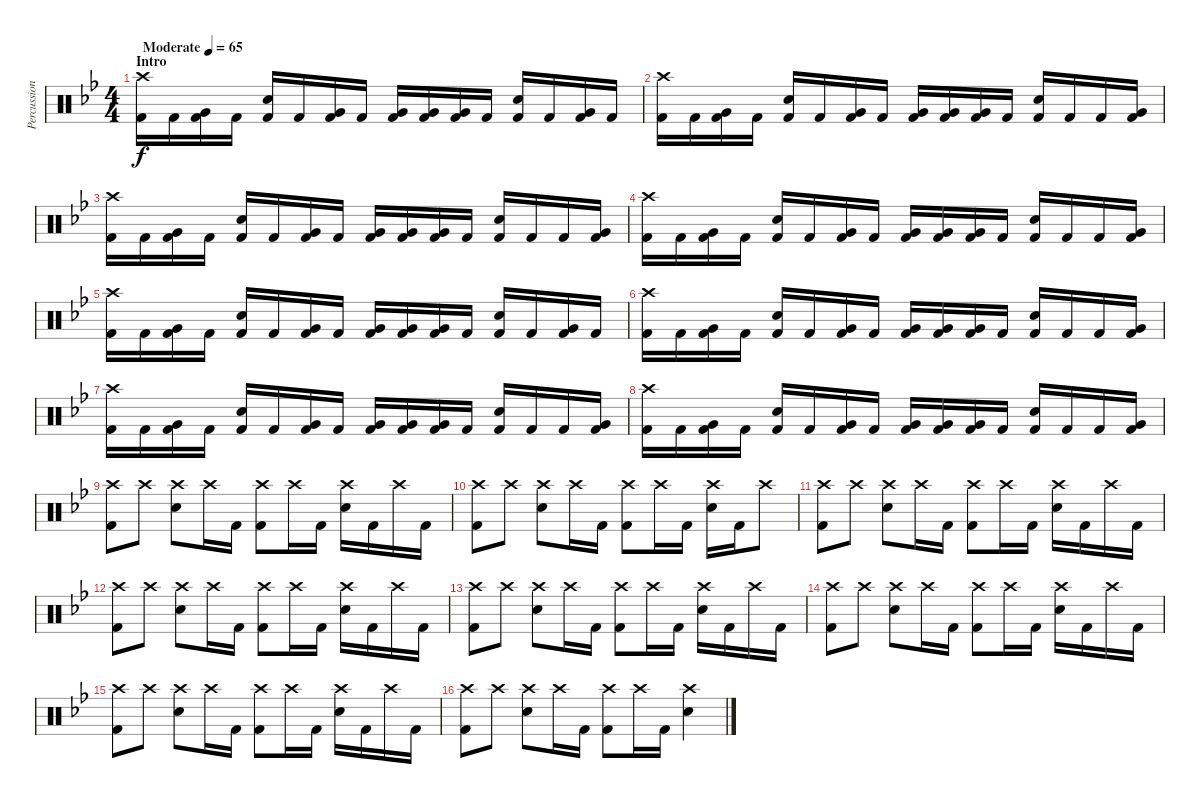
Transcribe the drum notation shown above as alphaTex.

\track ("Percussion" "Percussion") {instrument percussion}
\staff {score}
\articulation defaults
\ts (4 4)
\section ("" "Intro")
\tempo (65 "Moderate")
\clef neutral
\ks bb
("Crash high (hit)" "Kick (hit) 2").16{dy f} "Kick (hit) 2".16 ("Kick (hit) 2" "Very Low Tom (hit)").16 "Kick (hit) 2".16 ("Kick (hit) 2" "Snare (hit) 2").16 "Kick (hit) 2".16 ("Kick (hit) 2" "Very Low Tom (hit)").16 "Kick (hit) 2".16 ("Kick (hit) 2" "Very Low Tom (hit)").16 ("Kick (hit) 2" "Very Low Tom (hit)").16 ("Kick (hit) 2" "Very Low Tom (hit)").16 "Kick (hit) 2".16 ("Snare (hit) 2" "Kick (hit) 2").16 "Kick (hit) 2".16 ("Kick (hit) 2" "Very Low Tom (hit)").16 "Kick (hit) 2".16 |
("Crash high (hit)" "Kick (hit) 2").16 "Kick (hit) 2".16 ("Kick (hit) 2" "Very Low Tom (hit)").16 "Kick (hit) 2".16 ("Kick (hit) 2" "Snare (hit) 2").16 "Kick (hit) 2".16 ("Kick (hit) 2" "Very Low Tom (hit)").16 "Kick (hit) 2".16 ("Kick (hit) 2" "Very Low Tom (hit)").16 ("Kick (hit) 2" "Very Low Tom (hit)").16 ("Kick (hit) 2" "Very Low Tom (hit)").16 "Kick (hit) 2".16 ("Snare (hit) 2" "Kick (hit) 2").16 "Kick (hit) 2".16 "Kick (hit) 2".16 ("Kick (hit) 2" "Very Low Tom (hit)").16 |
("Crash high (hit)" "Kick (hit) 2").16 "Kick (hit) 2".16 ("Kick (hit) 2" "Very Low Tom (hit)").16 "Kick (hit) 2".16 ("Kick (hit) 2" "Snare (hit) 2").16 "Kick (hit) 2".16 ("Kick (hit) 2" "Very Low Tom (hit)").16 "Kick (hit) 2".16 ("Kick (hit) 2" "Very Low Tom (hit)").16 ("Kick (hit) 2" "Very Low Tom (hit)").16 ("Kick (hit) 2" "Very Low Tom (hit)").16 "Kick (hit) 2".16 ("Snare (hit) 2" "Kick (hit) 2").16 "Kick (hit) 2".16 "Kick (hit) 2".16 ("Kick (hit) 2" "Very Low Tom (hit)").16 |
("Crash high (hit)" "Kick (hit) 2").16 "Kick (hit) 2".16 ("Kick (hit) 2" "Very Low Tom (hit)").16 "Kick (hit) 2".16 ("Kick (hit) 2" "Snare (hit) 2").16 "Kick (hit) 2".16 ("Kick (hit) 2" "Very Low Tom (hit)").16 "Kick (hit) 2".16 ("Kick (hit) 2" "Very Low Tom (hit)").16 ("Kick (hit) 2" "Very Low Tom (hit)").16 ("Kick (hit) 2" "Very Low Tom (hit)").16 "Kick (hit) 2".16 ("Snare (hit) 2" "Kick (hit) 2").16 "Kick (hit) 2".16 "Kick (hit) 2".16 ("Kick (hit) 2" "Very Low Tom (hit)").16 |
("Crash high (hit)" "Kick (hit) 2").16 "Kick (hit) 2".16 ("Kick (hit) 2" "Very Low Tom (hit)").16 "Kick (hit) 2".16 ("Kick (hit) 2" "Snare (hit) 2").16 "Kick (hit) 2".16 ("Kick (hit) 2" "Very Low Tom (hit)").16 "Kick (hit) 2".16 ("Kick (hit) 2" "Very Low Tom (hit)").16 ("Kick (hit) 2" "Very Low Tom (hit)").16 ("Kick (hit) 2" "Very Low Tom (hit)").16 "Kick (hit) 2".16 ("Snare (hit) 2" "Kick (hit) 2").16 "Kick (hit) 2".16 ("Kick (hit) 2" "Very Low Tom (hit)").16 "Kick (hit) 2".16 |
("Crash high (hit)" "Kick (hit) 2").16 "Kick (hit) 2".16 ("Kick (hit) 2" "Very Low Tom (hit)").16 "Kick (hit) 2".16 ("Kick (hit) 2" "Snare (hit) 2").16 "Kick (hit) 2".16 ("Kick (hit) 2" "Very Low Tom (hit)").16 "Kick (hit) 2".16 ("Kick (hit) 2" "Very Low Tom (hit)").16 ("Kick (hit) 2" "Very Low Tom (hit)").16 ("Kick (hit) 2" "Very Low Tom (hit)").16 "Kick (hit) 2".16 ("Snare (hit) 2" "Kick (hit) 2").16 "Kick (hit) 2".16 "Kick (hit) 2".16 ("Kick (hit) 2" "Very Low Tom (hit)").16 |
("Crash high (hit)" "Kick (hit) 2").16 "Kick (hit) 2".16 ("Kick (hit) 2" "Very Low Tom (hit)").16 "Kick (hit) 2".16 ("Kick (hit) 2" "Snare (hit) 2").16 "Kick (hit) 2".16 ("Kick (hit) 2" "Very Low Tom (hit)").16 "Kick (hit) 2".16 ("Kick (hit) 2" "Very Low Tom (hit)").16 ("Kick (hit) 2" "Very Low Tom (hit)").16 ("Kick (hit) 2" "Very Low Tom (hit)").16 "Kick (hit) 2".16 ("Snare (hit) 2" "Kick (hit) 2").16 "Kick (hit) 2".16 "Kick (hit) 2".16 ("Kick (hit) 2" "Very Low Tom (hit)").16 |
("Crash high (hit)" "Kick (hit) 2").16 "Kick (hit) 2".16 ("Kick (hit) 2" "Very Low Tom (hit)").16 "Kick (hit) 2".16 ("Kick (hit) 2" "Snare (hit) 2").16 "Kick (hit) 2".16 ("Kick (hit) 2" "Very Low Tom (hit)").16 "Kick (hit) 2".16 ("Kick (hit) 2" "Very Low Tom (hit)").16 ("Kick (hit) 2" "Very Low Tom (hit)").16 ("Kick (hit) 2" "Very Low Tom (hit)").16 "Kick (hit) 2".16 ("Snare (hit) 2" "Kick (hit) 2").16 "Kick (hit) 2".16 "Kick (hit) 2".16 ("Kick (hit) 2" "Very Low Tom (hit)").16 |
("Kick (hit) 2" "Crash high (hit)").8 "Crash high (hit)".8 ("Crash high (hit)" "Snare (hit) 2").8 "Crash high (hit)".16 "Kick (hit) 2".16 ("Kick (hit) 2" "Crash high (hit)").8 "Crash high (hit)".16 "Kick (hit) 2".16 ("Crash high (hit)" "Snare (hit) 2").16 "Kick (hit) 2".16 "Crash high (hit)".16 "Kick (hit) 2".16 |
("Kick (hit) 2" "Crash high (hit)").8 "Crash high (hit)".8 ("Crash high (hit)" "Snare (hit) 2").8 "Crash high (hit)".16 "Kick (hit) 2".16 ("Kick (hit) 2" "Crash high (hit)").8 "Crash high (hit)".16 "Kick (hit) 2".16 ("Crash high (hit)" "Snare (hit) 2").16 "Kick (hit) 2".16 "Crash high (hit)".8 |
("Kick (hit) 2" "Crash high (hit)").8 "Crash high (hit)".8 ("Crash high (hit)" "Snare (hit) 2").8 "Crash high (hit)".16 "Kick (hit) 2".16 ("Kick (hit) 2" "Crash high (hit)").8 "Crash high (hit)".16 "Kick (hit) 2".16 ("Crash high (hit)" "Snare (hit) 2").16 "Kick (hit) 2".16 "Crash high (hit)".16 "Kick (hit) 2".16 |
("Kick (hit) 2" "Crash high (hit)").8 "Crash high (hit)".8 ("Crash high (hit)" "Snare (hit) 2").8 "Crash high (hit)".16 "Kick (hit) 2".16 ("Kick (hit) 2" "Crash high (hit)").8 "Crash high (hit)".16 "Kick (hit) 2".16 ("Crash high (hit)" "Snare (hit) 2").16 "Kick (hit) 2".16 "Crash high (hit)".16 "Kick (hit) 2".16 |
("Kick (hit) 2" "Crash high (hit)").8 "Crash high (hit)".8 ("Crash high (hit)" "Snare (hit) 2").8 "Crash high (hit)".16 "Kick (hit) 2".16 ("Kick (hit) 2" "Crash high (hit)").8 "Crash high (hit)".16 "Kick (hit) 2".16 ("Crash high (hit)" "Snare (hit) 2").16 "Kick (hit) 2".16 "Crash high (hit)".16 "Kick (hit) 2".16 |
("Kick (hit) 2" "Crash high (hit)").8 "Crash high (hit)".8 ("Crash high (hit)" "Snare (hit) 2").8 "Crash high (hit)".16 "Kick (hit) 2".16 ("Kick (hit) 2" "Crash high (hit)").8 "Crash high (hit)".16 "Kick (hit) 2".16 ("Crash high (hit)" "Snare (hit) 2").16 "Kick (hit) 2".16 "Crash high (hit)".16 "Kick (hit) 2".16 |
("Kick (hit) 2" "Crash high (hit)").8 "Crash high (hit)".8 ("Crash high (hit)" "Snare (hit) 2").8 "Crash high (hit)".16 "Kick (hit) 2".16 ("Kick (hit) 2" "Crash high (hit)").8 "Crash high (hit)".16 "Kick (hit) 2".16 ("Crash high (hit)" "Snare (hit) 2").16 "Kick (hit) 2".16 "Crash high (hit)".16 "Kick (hit) 2".16 |
("Kick (hit) 2" "Crash high (hit)").8 "Crash high (hit)".8 ("Crash high (hit)" "Snare (hit) 2").8 "Crash high (hit)".16 "Kick (hit) 2".16 ("Kick (hit) 2" "Crash high (hit)").8 "Crash high (hit)".16 "Kick (hit) 2".16 ("Crash high (hit)" "Snare (hit) 2").4
